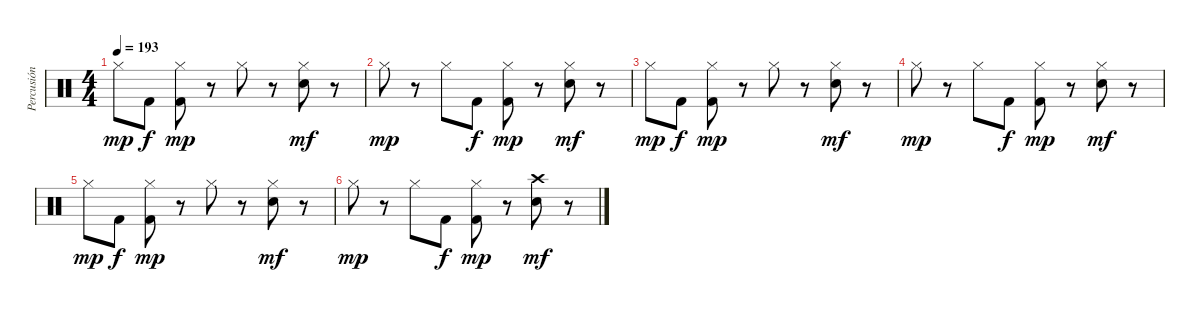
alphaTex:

\track ("Percusión" "Percusión") {instrument percussion}
\staff {score}
\articulation defaults
\ts (4 4)
\tempo 193
\clef neutral
\ks c "Hi-Hat (closed)".8{dy mp} "Kick (hit) 2".8{dy f}
("Hi-Hat (closed)" "Kick (hit) 2").8{dy mp} r.8 "Hi-Hat (closed)".8 r.8 ("Hi-Hat (closed)" "Electric Snare (hit)").8{dy mf} r.8 |
"Hi-Hat (closed)".8{dy mp} r.8 "Hi-Hat (closed)".8 "Kick (hit) 2".8{dy f} ("Hi-Hat (closed)" "Kick (hit) 2").8{dy mp} r.8 ("Hi-Hat (closed)" "Electric Snare (hit)").8{dy mf} r.8 |
"Hi-Hat (closed)".8{dy mp} "Kick (hit) 2".8{dy f} ("Hi-Hat (closed)" "Kick (hit) 2").8{dy mp} r.8 "Hi-Hat (closed)".8 r.8 ("Hi-Hat (closed)" "Electric Snare (hit)").8{dy mf} r.8 |
"Hi-Hat (closed)".8{dy mp} r.8 "Hi-Hat (closed)".8 "Kick (hit) 2".8{dy f} ("Hi-Hat (closed)" "Kick (hit) 2").8{dy mp} r.8 ("Hi-Hat (closed)" "Electric Snare (hit)").8{dy mf} r.8 |
"Hi-Hat (closed)".8{dy mp} "Kick (hit) 2".8{dy f} ("Hi-Hat (closed)" "Kick (hit) 2").8{dy mp} r.8 "Hi-Hat (closed)".8 r.8 ("Hi-Hat (closed)" "Electric Snare (hit)").8{dy mf} r.8 |
"Hi-Hat (closed)".8{dy mp} r.8 "Hi-Hat (closed)".8 "Kick (hit) 2".8{dy f} ("Hi-Hat (closed)" "Kick (hit) 2").8{dy mp} r.8 ("Crash high (hit)" "Electric Snare (hit)").8{dy mf} r.8
